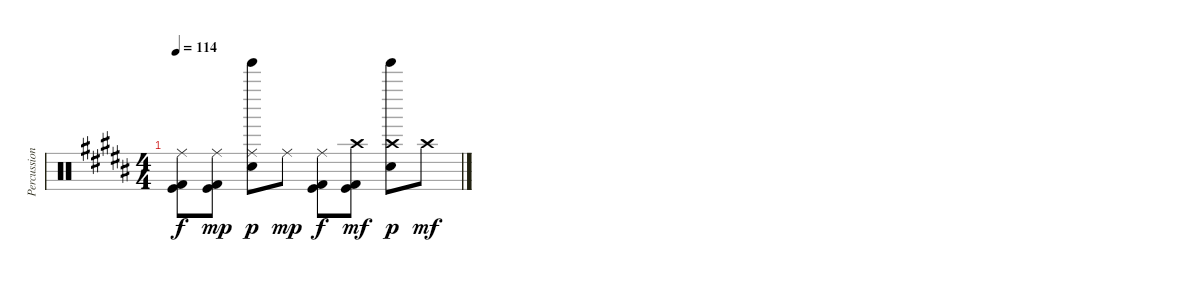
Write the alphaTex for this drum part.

\track ("Percussion" "Percussion") {instrument percussion}
\staff {score}
\articulation defaults
\ts (4 4)
\tempo 114
\clef neutral
\ks g#minor
("Ride (middle)" "Kick (hit)" "Kick (hit) 2").8{dy f} ("Ride (middle)" "Kick (hit)" "Kick (hit) 2").8{dy mp} ("Ride (middle)" "Electric Snare (hit)" "Tinkle Bell (hit)").8{dy p} "Ride (middle)".8{dy mp} ("Ride (middle)" "Kick (hit)" "Kick (hit) 2").8{dy f} ("Crash high (hit)" "Kick (hit)" "Kick (hit) 2").8{dy mf} ("Crash high (hit)" "Electric Snare (hit)" "Tinkle Bell (hit)").8{dy p} "Crash high (hit)".8{dy mf}
